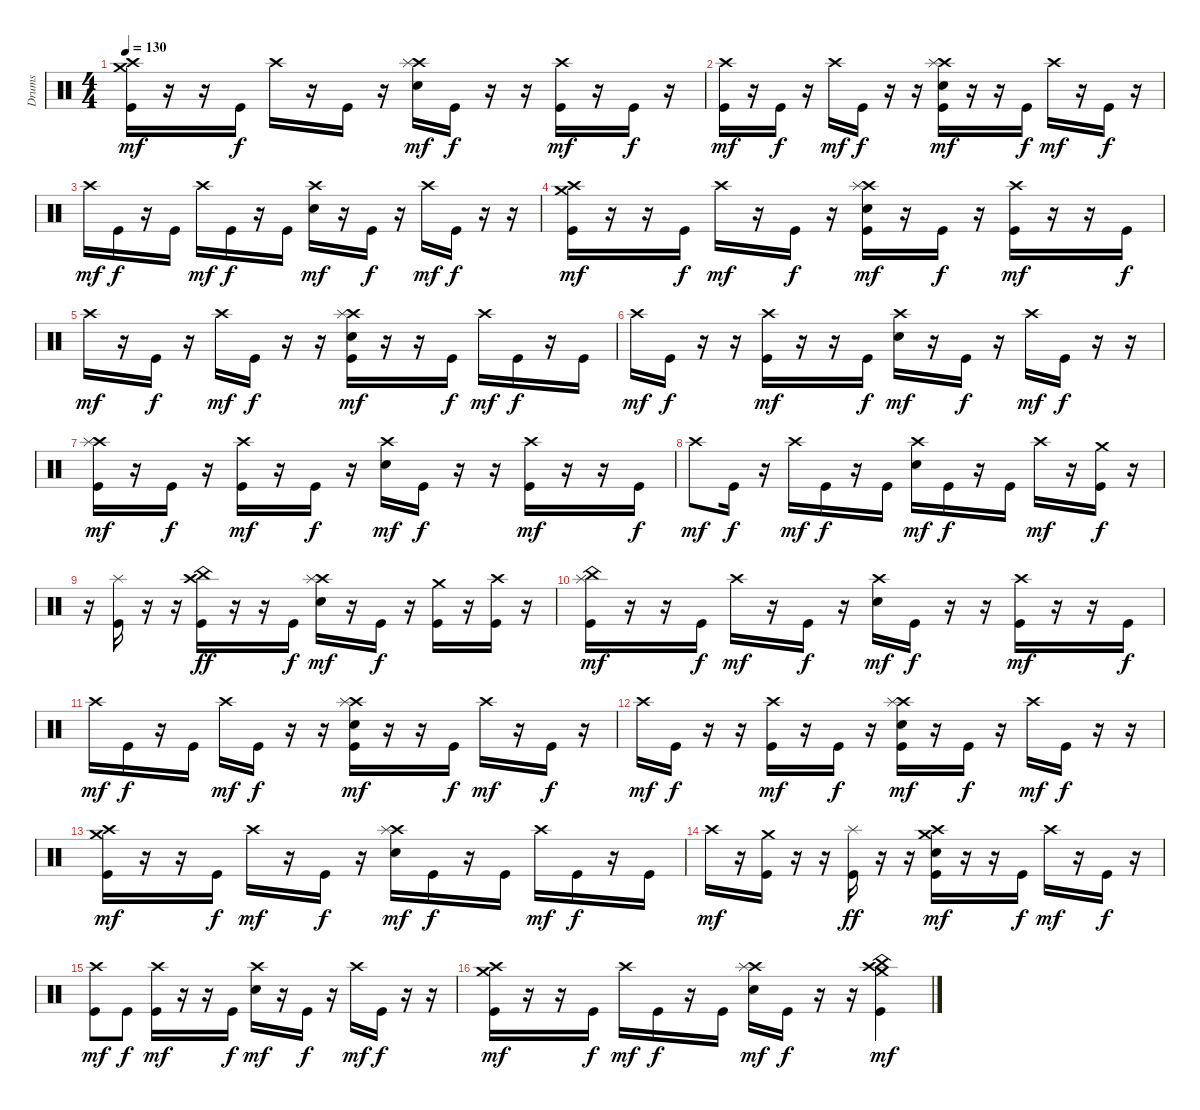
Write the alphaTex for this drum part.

\track ("Drums" "Drums") {instrument percussion}
\staff {score}
\articulation defaults
\ts (4 4)
\tempo 130
\clef neutral
\ks c
("Crash high (hit)" "Crash medium (hit)" "Kick (hit)").16{dy mf} r.16 r.16 "Kick (hit)".16{dy f} "Crash high (hit)".16 r.16 "Kick (hit)".16 r.16 ("Crash high (hit)" "Splash (hit)" "Electric Snare (hit)").16{dy mf} "Kick (hit)".16{dy f} r.16 r.16 ("Crash high (hit)" "Kick (hit)").16{dy mf} r.16 "Kick (hit)".16{dy f} r.16 |
("Crash high (hit)" "Kick (hit)").16{dy mf} r.16 "Kick (hit)".16{dy f} r.16 "Crash high (hit)".16{dy mf} "Kick (hit)".16{dy f} r.16 r.16 ("Crash high (hit)" "Splash (hit)" "Electric Snare (hit)" "Kick (hit)").16{dy mf} r.16 r.16 "Kick (hit)".16{dy f} "Crash high (hit)".16{dy mf} r.16 "Kick (hit)".16{dy f} r.16 |
"Crash high (hit)".16{dy mf} "Kick (hit)".16{dy f} r.16 "Kick (hit)".16 "Crash high (hit)".16{dy mf} "Kick (hit)".16{dy f} r.16 "Kick (hit)".16 ("Crash high (hit)" "Electric Snare (hit)").16{dy mf} r.16 "Kick (hit)".16{dy f} r.16 "Crash high (hit)".16{dy mf} "Kick (hit)".16{dy f} r.16 r.16 |
("Crash high (hit)" "Crash medium (hit)" "Kick (hit)").16{dy mf} r.16 r.16 "Kick (hit)".16{dy f} "Crash high (hit)".16{dy mf} r.16 "Kick (hit)".16{dy f} r.16 ("Crash high (hit)" "Splash (hit)" "Electric Snare (hit)" "Kick (hit)").16{dy mf} r.16 "Kick (hit)".16{dy f} r.16 ("Crash high (hit)" "Kick (hit)").16{dy mf} r.16 r.16 "Kick (hit)".16{dy f} |
"Crash high (hit)".16{dy mf} r.16 "Kick (hit)".16{dy f} r.16 "Crash high (hit)".16{dy mf} "Kick (hit)".16{dy f} r.16 r.16 ("Crash high (hit)" "Splash (hit)" "Electric Snare (hit)" "Kick (hit)").16{dy mf} r.16 r.16 "Kick (hit)".16{dy f} "Crash high (hit)".16{dy mf} "Kick (hit)".16{dy f} r.16 "Kick (hit)".16 |
"Crash high (hit)".16{dy mf} "Kick (hit)".16{dy f} r.16 r.16 ("Crash high (hit)" "Kick (hit)").16{dy mf} r.16 r.16 "Kick (hit)".16{dy f} ("Crash high (hit)" "Electric Snare (hit)").16{dy mf} r.16 "Kick (hit)".16{dy f} r.16 "Crash high (hit)".16{dy mf} "Kick (hit)".16{dy f} r.16 r.16 |
("Crash high (hit)" "Splash (hit)" "Kick (hit)").16{dy mf} r.16 "Kick (hit)".16{dy f} r.16 ("Crash high (hit)" "Kick (hit)").16{dy mf} r.16 "Kick (hit)".16{dy f} r.16 ("Crash high (hit)" "Electric Snare (hit)").16{dy mf} "Kick (hit)".16{dy f} r.16 r.16 ("Crash high (hit)" "Kick (hit)").16{dy mf} r.16 r.16 "Kick (hit)".16{dy f} |
"Crash high (hit)".8{dy mf} "Kick (hit)".16{dy f} r.16 "Crash high (hit)".16{dy mf} "Kick (hit)".16{dy f} r.16 "Kick (hit)".16 ("Crash high (hit)" "Electric Snare (hit)").16{dy mf} "Kick (hit)".16{dy f} r.16 "Kick (hit)".16 "Crash high (hit)".16{dy mf} r.16 ("Crash medium (hit)" "Kick (hit)").16{dy f} r.16 |
r.16 ("Splash (hit)" "Kick (hit)").16 r.16 r.16 ("China (hit)" "Crash high (hit)" "Kick (hit)").16{dy ff} r.16 r.16 "Kick (hit)".16{dy f} ("Crash high (hit)" "Splash (hit)" "Electric Snare (hit)").16{dy mf} r.16 "Kick (hit)".16{dy f} r.16 ("Crash medium (hit)" "Kick (hit)").16 r.16 ("Crash high (hit)" "Kick (hit)").16 r.16 |
("China (hit)" "Splash (hit)" "Kick (hit)").16{dy mf} r.16 r.16 "Kick (hit)".16{dy f} "Crash high (hit)".16{dy mf} r.16 "Kick (hit)".16{dy f} r.16 ("Crash high (hit)" "Electric Snare (hit)").16{dy mf} "Kick (hit)".16{dy f} r.16 r.16 ("Crash high (hit)" "Kick (hit)").16{dy mf} r.16 r.16 "Kick (hit)".16{dy f} |
"Crash high (hit)".16{dy mf} "Kick (hit)".16{dy f} r.16 "Kick (hit)".16 "Crash high (hit)".16{dy mf} "Kick (hit)".16{dy f} r.16 r.16 ("Crash high (hit)" "Splash (hit)" "Electric Snare (hit)" "Kick (hit)").16{dy mf} r.16 r.16 "Kick (hit)".16{dy f} "Crash high (hit)".16{dy mf} r.16 "Kick (hit)".16{dy f} r.16 |
"Crash high (hit)".16{dy mf} "Kick (hit)".16{dy f} r.16 r.16 ("Crash high (hit)" "Kick (hit)").16{dy mf} r.16 "Kick (hit)".16{dy f} r.16 ("Crash high (hit)" "Splash (hit)" "Electric Snare (hit)" "Kick (hit)").16{dy mf} r.16 "Kick (hit)".16{dy f} r.16 "Crash high (hit)".16{dy mf} "Kick (hit)".16{dy f} r.16 r.16 |
("Crash high (hit)" "Crash medium (hit)" "Kick (hit)").16{dy mf} r.16 r.16 "Kick (hit)".16{dy f} "Crash high (hit)".16{dy mf} r.16 "Kick (hit)".16{dy f} r.16 ("Crash high (hit)" "Splash (hit)" "Electric Snare (hit)").16{dy mf} "Kick (hit)".16{dy f} r.16 "Kick (hit)".16 "Crash high (hit)".16{dy mf} "Kick (hit)".16{dy f} r.16 "Kick (hit)".16 |
"Crash high (hit)".16{dy mf} r.16 ("Crash medium (hit)" "Kick (hit)").16 r.16 r.16 ("Splash (hit)" "Kick (hit)").16{dy ff} r.16 r.16 ("Crash high (hit)" "Crash medium (hit)" "Electric Snare (hit)" "Kick (hit)").16{dy mf} r.16 r.16 "Kick (hit)".16{dy f} "Crash high (hit)".16{dy mf} r.16 "Kick (hit)".16{dy f} r.16 |
("Crash high (hit)" "Kick (hit)").8{dy mf} "Kick (hit)".8{dy f} ("Crash high (hit)" "Kick (hit)").16{dy mf} r.16 r.16 "Kick (hit)".16{dy f} ("Crash high (hit)" "Electric Snare (hit)").16{dy mf} r.16 "Kick (hit)".16{dy f} r.16 "Crash high (hit)".16{dy mf} "Kick (hit)".16{dy f} r.16 r.16 |
("Crash high (hit)" "Crash medium (hit)" "Kick (hit)").16{dy mf} r.16 r.16 "Kick (hit)".16{dy f} "Crash high (hit)".16{dy mf} "Kick (hit)".16{dy f} r.16 "Kick (hit)".16 ("Crash high (hit)" "Splash (hit)" "Electric Snare (hit)").16{dy mf} "Kick (hit)".16{dy f} r.16 r.16 ("Crash high (hit)" "Crash medium (hit)" "China (hit)" "Kick (hit)").4{dy mf}
